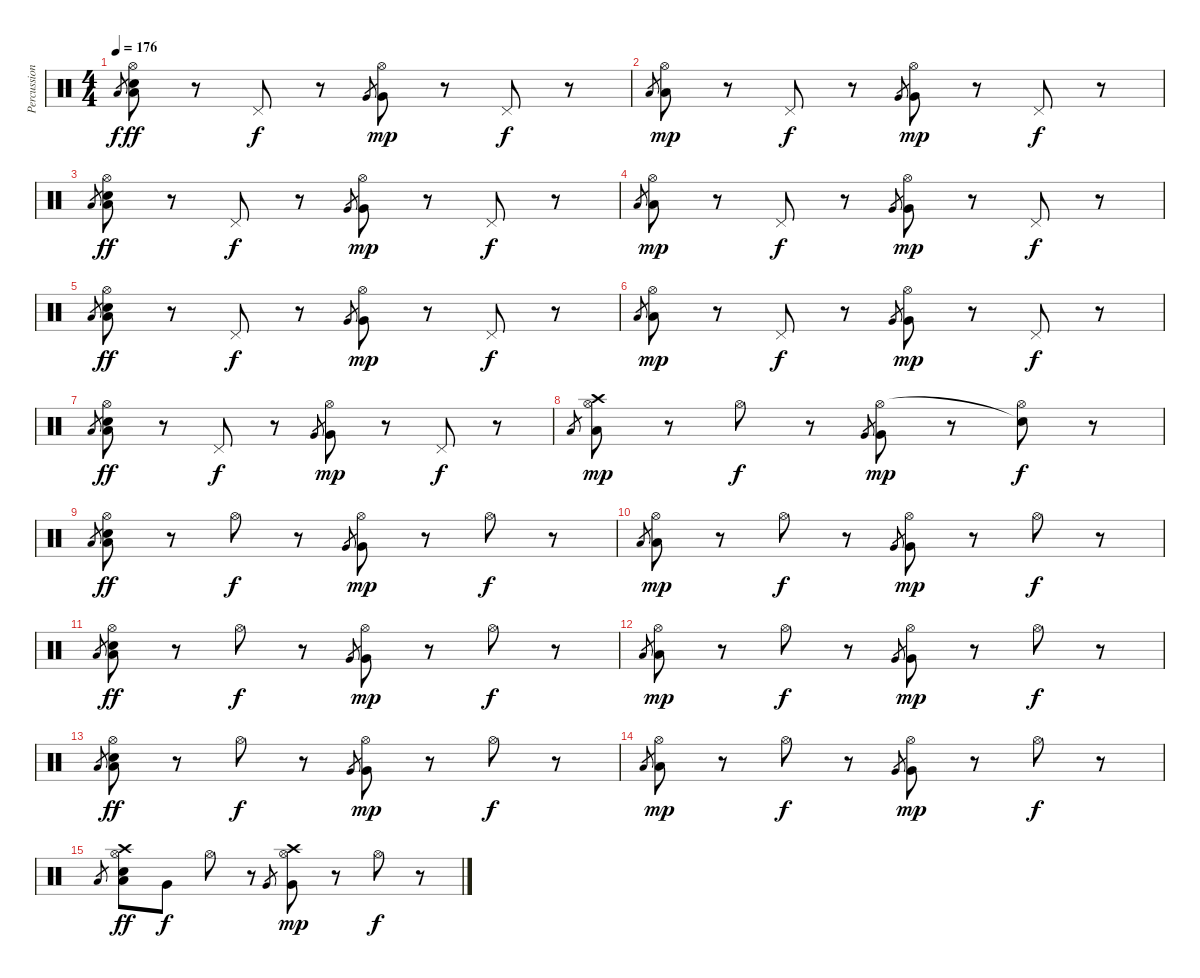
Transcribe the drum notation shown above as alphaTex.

\track ("Percussions" "Percussion") {instrument percussion}
\staff {score}
\articulation defaults
\ts (4 4)
\tempo 176
\clef neutral
\ks c "Low Tom (hit)".8{gr dy f}
("Hi-Hat (open)" "Low Tom (hit)" "Electric Snare (hit)").8{dy ff} r.8 "Pedal Hi-Hat (hit)".8{dy f} r.8 "Very Low Tom (hit)".8{gr} ("Hi-Hat (open)" "Very Low Tom (hit)").8{dy mp} r.8 "Pedal Hi-Hat (hit)".8{dy f} r.8 |
"Low Floor Tom (hit)".8{gr} ("Hi-Hat (open)" "Low Floor Tom (hit)").8{dy mp} r.8 "Pedal Hi-Hat (hit)".8{dy f} r.8 "Very Low Tom (hit)".8{gr} ("Hi-Hat (open)" "Very Low Tom (hit)").8{dy mp} r.8 "Pedal Hi-Hat (hit)".8{dy f} r.8 |
"Low Tom (hit)".8{gr} ("Hi-Hat (open)" "Low Tom (hit)" "Electric Snare (hit)").8{dy ff} r.8 "Pedal Hi-Hat (hit)".8{dy f} r.8 "Very Low Tom (hit)".8{gr} ("Hi-Hat (open)" "Very Low Tom (hit)").8{dy mp} r.8 "Pedal Hi-Hat (hit)".8{dy f} r.8 |
"Low Floor Tom (hit)".8{gr} ("Hi-Hat (open)" "Low Floor Tom (hit)").8{dy mp} r.8 "Pedal Hi-Hat (hit)".8{dy f} r.8 "Very Low Tom (hit)".8{gr} ("Hi-Hat (open)" "Very Low Tom (hit)").8{dy mp} r.8 "Pedal Hi-Hat (hit)".8{dy f} r.8 |
"Low Tom (hit)".8{gr} ("Hi-Hat (open)" "Low Tom (hit)" "Electric Snare (hit)").8{dy ff} r.8 "Pedal Hi-Hat (hit)".8{dy f} r.8 "Very Low Tom (hit)".8{gr} ("Hi-Hat (open)" "Very Low Tom (hit)").8{dy mp} r.8 "Pedal Hi-Hat (hit)".8{dy f} r.8 |
"Low Floor Tom (hit)".8{gr} ("Hi-Hat (open)" "Low Floor Tom (hit)").8{dy mp} r.8 "Pedal Hi-Hat (hit)".8{dy f} r.8 "Very Low Tom (hit)".8{gr} ("Hi-Hat (open)" "Very Low Tom (hit)").8{dy mp} r.8 "Pedal Hi-Hat (hit)".8{dy f} r.8 |
"Low Tom (hit)".8{gr} ("Hi-Hat (open)" "Low Tom (hit)" "Electric Snare (hit)").8{dy ff} r.8 "Pedal Hi-Hat (hit)".8{dy f} r.8 "Very Low Tom (hit)".8{gr} ("Hi-Hat (open)" "Very Low Tom (hit)").8{dy mp} r.8 "Pedal Hi-Hat (hit)".8{dy f} r.8 |
"Low Floor Tom (hit)".8{gr} ("Crash high (hit)" "Hi-Hat (open)" "Low Floor Tom (hit)").8{dy mp} r.8 "Hi-Hat (open)".8{dy f} r.8 "Very Low Tom (hit)".8{gr} ("Hi-Hat (open)" "Very Low Tom (hit)").8{dy mp} r.8 ("Snare (hit)"{t} "Hi-Hat (open)").8{dy f} r.8 |
"Low Tom (hit)".8{gr} ("Hi-Hat (open)" "Low Tom (hit)" "Electric Snare (hit)").8{dy ff} r.8 "Hi-Hat (open)".8{dy f} r.8 "Very Low Tom (hit)".8{gr} ("Hi-Hat (open)" "Very Low Tom (hit)").8{dy mp} r.8 "Hi-Hat (open)".8{dy f} r.8 |
"Low Floor Tom (hit)".8{gr} ("Hi-Hat (open)" "Low Floor Tom (hit)").8{dy mp} r.8 "Hi-Hat (open)".8{dy f} r.8 "Very Low Tom (hit)".8{gr} ("Hi-Hat (open)" "Very Low Tom (hit)").8{dy mp} r.8 "Hi-Hat (open)".8{dy f} r.8 |
"Low Tom (hit)".8{gr} ("Hi-Hat (open)" "Low Tom (hit)" "Electric Snare (hit)").8{dy ff} r.8 "Hi-Hat (open)".8{dy f} r.8 "Very Low Tom (hit)".8{gr} ("Hi-Hat (open)" "Very Low Tom (hit)").8{dy mp} r.8 "Hi-Hat (open)".8{dy f} r.8 |
"Low Floor Tom (hit)".8{gr} ("Hi-Hat (open)" "Low Floor Tom (hit)").8{dy mp} r.8 "Hi-Hat (open)".8{dy f} r.8 "Very Low Tom (hit)".8{gr} ("Hi-Hat (open)" "Very Low Tom (hit)").8{dy mp} r.8 "Hi-Hat (open)".8{dy f} r.8 |
"Low Tom (hit)".8{gr} ("Hi-Hat (open)" "Low Tom (hit)" "Electric Snare (hit)").8{dy ff} r.8 "Hi-Hat (open)".8{dy f} r.8 "Very Low Tom (hit)".8{gr} ("Hi-Hat (open)" "Very Low Tom (hit)").8{dy mp} r.8 "Hi-Hat (open)".8{dy f} r.8 |
"Low Floor Tom (hit)".8{gr} ("Hi-Hat (open)" "Low Floor Tom (hit)").8{dy mp} r.8 "Hi-Hat (open)".8{dy f} r.8 "Very Low Tom (hit)".8{gr} ("Hi-Hat (open)" "Very Low Tom (hit)").8{dy mp} r.8 "Hi-Hat (open)".8{dy f} r.8 |
"Low Tom (hit)".8{gr} ("Crash high (hit)" "Hi-Hat (open)" "Low Tom (hit)" "Electric Snare (hit)").8{dy ff} "Very Low Tom (hit)".8{dy f} "Hi-Hat (open)".8 r.8 "Very Low Tom (hit)".8{gr} ("Crash high (hit)" "Hi-Hat (open)" "Very Low Tom (hit)").8{dy mp} r.8 "Hi-Hat (open)".8{dy f} r.8
